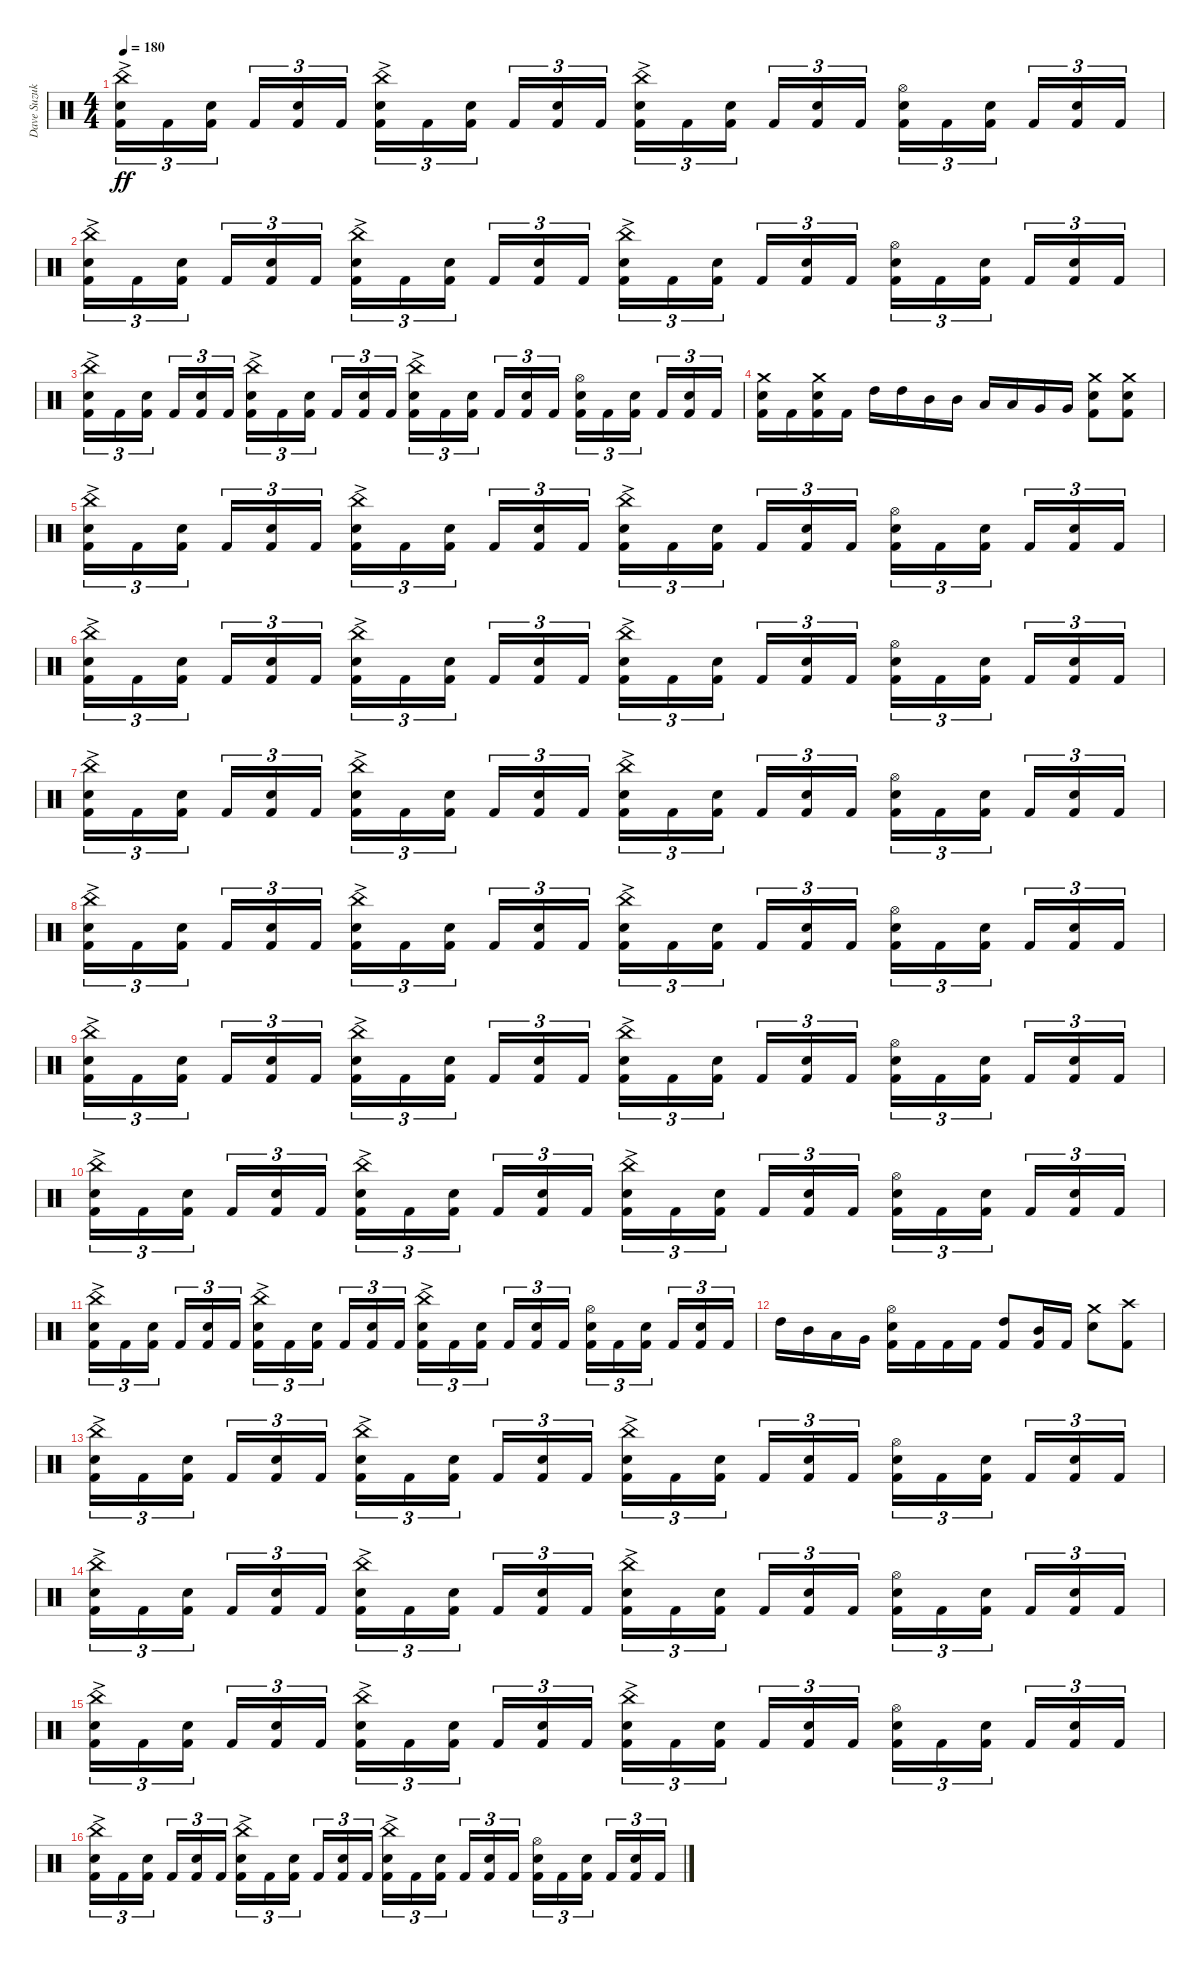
\track ("Dave Suzuki - Drums" "Dave Suzuk") {instrument percussion}
\staff {score}
\articulation defaults
\ts (4 4)
\tempo 180
\clef neutral
\ks c
("China (hit)" "Electric Snare (hit)"{ac} "Kick (hit) 2").16{tu (3 2) dy ff} "Kick (hit) 2".16{tu (3 2)} ("Electric Snare (hit)" "Kick (hit) 2").16{tu (3 2) beam splitsecondary} "Kick (hit) 2".16{tu (3 2)} ("Electric Snare (hit)" "Kick (hit) 2").16{tu (3 2)} "Kick (hit) 2".16{tu (3 2)} ("China (hit)" "Electric Snare (hit)"{ac} "Kick (hit) 2").16{tu (3 2)} "Kick (hit) 2".16{tu (3 2)} ("Electric Snare (hit)" "Kick (hit) 2").16{tu (3 2) beam splitsecondary} "Kick (hit) 2".16{tu (3 2)} ("Electric Snare (hit)" "Kick (hit) 2").16{tu (3 2)} "Kick (hit) 2".16{tu (3 2)} ("China (hit)" "Electric Snare (hit)"{ac} "Kick (hit) 2").16{tu (3 2)} "Kick (hit) 2".16{tu (3 2)} ("Electric Snare (hit)" "Kick (hit) 2").16{tu (3 2) beam splitsecondary} "Kick (hit) 2".16{tu (3 2)} ("Electric Snare (hit)" "Kick (hit) 2").16{tu (3 2)} "Kick (hit) 2".16{tu (3 2)} ("Hi-Hat (open)" "Electric Snare (hit)" "Kick (hit) 2").16{tu (3 2)} "Kick (hit) 2".16{tu (3 2)} ("Electric Snare (hit)" "Kick (hit) 2").16{tu (3 2) beam splitsecondary} "Kick (hit) 2".16{tu (3 2)} ("Electric Snare (hit)" "Kick (hit) 2").16{tu (3 2)} "Kick (hit) 2".16{tu (3 2)} |
("China (hit)" "Electric Snare (hit)"{ac} "Kick (hit) 2").16{tu (3 2)} "Kick (hit) 2".16{tu (3 2)} ("Electric Snare (hit)" "Kick (hit) 2").16{tu (3 2) beam splitsecondary} "Kick (hit) 2".16{tu (3 2)} ("Electric Snare (hit)" "Kick (hit) 2").16{tu (3 2)} "Kick (hit) 2".16{tu (3 2)} ("China (hit)" "Electric Snare (hit)"{ac} "Kick (hit) 2").16{tu (3 2)} "Kick (hit) 2".16{tu (3 2)} ("Electric Snare (hit)" "Kick (hit) 2").16{tu (3 2) beam splitsecondary} "Kick (hit) 2".16{tu (3 2)} ("Electric Snare (hit)" "Kick (hit) 2").16{tu (3 2)} "Kick (hit) 2".16{tu (3 2)} ("China (hit)" "Electric Snare (hit)"{ac} "Kick (hit) 2").16{tu (3 2)} "Kick (hit) 2".16{tu (3 2)} ("Electric Snare (hit)" "Kick (hit) 2").16{tu (3 2) beam splitsecondary} "Kick (hit) 2".16{tu (3 2)} ("Electric Snare (hit)" "Kick (hit) 2").16{tu (3 2)} "Kick (hit) 2".16{tu (3 2)} ("Hi-Hat (open)" "Electric Snare (hit)" "Kick (hit) 2").16{tu (3 2)} "Kick (hit) 2".16{tu (3 2)} ("Electric Snare (hit)" "Kick (hit) 2").16{tu (3 2) beam splitsecondary} "Kick (hit) 2".16{tu (3 2)} ("Electric Snare (hit)" "Kick (hit) 2").16{tu (3 2)} "Kick (hit) 2".16{tu (3 2)} |
("China (hit)" "Electric Snare (hit)"{ac} "Kick (hit) 2").16{tu (3 2)} "Kick (hit) 2".16{tu (3 2)} ("Electric Snare (hit)" "Kick (hit) 2").16{tu (3 2) beam splitsecondary} "Kick (hit) 2".16{tu (3 2)} ("Electric Snare (hit)" "Kick (hit) 2").16{tu (3 2)} "Kick (hit) 2".16{tu (3 2)} ("China (hit)" "Electric Snare (hit)"{ac} "Kick (hit) 2").16{tu (3 2)} "Kick (hit) 2".16{tu (3 2)} ("Electric Snare (hit)" "Kick (hit) 2").16{tu (3 2) beam splitsecondary} "Kick (hit) 2".16{tu (3 2)} ("Electric Snare (hit)" "Kick (hit) 2").16{tu (3 2)} "Kick (hit) 2".16{tu (3 2)} ("China (hit)" "Electric Snare (hit)"{ac} "Kick (hit) 2").16{tu (3 2)} "Kick (hit) 2".16{tu (3 2)} ("Electric Snare (hit)" "Kick (hit) 2").16{tu (3 2) beam splitsecondary} "Kick (hit) 2".16{tu (3 2)} ("Electric Snare (hit)" "Kick (hit) 2").16{tu (3 2)} "Kick (hit) 2".16{tu (3 2)} ("Hi-Hat (open)" "Electric Snare (hit)" "Kick (hit) 2").16{tu (3 2)} "Kick (hit) 2".16{tu (3 2)} ("Electric Snare (hit)" "Kick (hit) 2").16{tu (3 2) beam splitsecondary} "Kick (hit) 2".16{tu (3 2)} ("Electric Snare (hit)" "Kick (hit) 2").16{tu (3 2)} "Kick (hit) 2".16{tu (3 2)} |
("Crash medium (hit)" "Electric Snare (hit)" "Kick (hit) 2").16 "Kick (hit) 2".16 ("Crash medium (hit)" "Electric Snare (hit)" "Kick (hit) 2").16 "Kick (hit) 2".16 "High Tom (hit)".16 "High Tom (hit)".16 "Mid Tom (hit)".16 "Mid Tom (hit)".16 "Low Tom (hit)".16 "Low Tom (hit)".16 "Very Low Tom (hit)".16 "Very Low Tom (hit)".16 ("Crash medium (hit)" "Electric Snare (hit)" "Kick (hit) 2").8 ("Crash medium (hit)" "Electric Snare (hit)" "Kick (hit) 2").8 |
("China (hit)" "Electric Snare (hit)"{ac} "Kick (hit) 2").16{tu (3 2)} "Kick (hit) 2".16{tu (3 2)} ("Electric Snare (hit)" "Kick (hit) 2").16{tu (3 2) beam splitsecondary} "Kick (hit) 2".16{tu (3 2)} ("Electric Snare (hit)" "Kick (hit) 2").16{tu (3 2)} "Kick (hit) 2".16{tu (3 2)} ("China (hit)" "Electric Snare (hit)"{ac} "Kick (hit) 2").16{tu (3 2)} "Kick (hit) 2".16{tu (3 2)} ("Electric Snare (hit)" "Kick (hit) 2").16{tu (3 2) beam splitsecondary} "Kick (hit) 2".16{tu (3 2)} ("Electric Snare (hit)" "Kick (hit) 2").16{tu (3 2)} "Kick (hit) 2".16{tu (3 2)} ("China (hit)" "Electric Snare (hit)"{ac} "Kick (hit) 2").16{tu (3 2)} "Kick (hit) 2".16{tu (3 2)} ("Electric Snare (hit)" "Kick (hit) 2").16{tu (3 2) beam splitsecondary} "Kick (hit) 2".16{tu (3 2)} ("Electric Snare (hit)" "Kick (hit) 2").16{tu (3 2)} "Kick (hit) 2".16{tu (3 2)} ("Hi-Hat (open)" "Electric Snare (hit)" "Kick (hit) 2").16{tu (3 2)} "Kick (hit) 2".16{tu (3 2)} ("Electric Snare (hit)" "Kick (hit) 2").16{tu (3 2) beam splitsecondary} "Kick (hit) 2".16{tu (3 2)} ("Electric Snare (hit)" "Kick (hit) 2").16{tu (3 2)} "Kick (hit) 2".16{tu (3 2)} |
("China (hit)" "Electric Snare (hit)"{ac} "Kick (hit) 2").16{tu (3 2)} "Kick (hit) 2".16{tu (3 2)} ("Electric Snare (hit)" "Kick (hit) 2").16{tu (3 2) beam splitsecondary} "Kick (hit) 2".16{tu (3 2)} ("Electric Snare (hit)" "Kick (hit) 2").16{tu (3 2)} "Kick (hit) 2".16{tu (3 2)} ("China (hit)" "Electric Snare (hit)"{ac} "Kick (hit) 2").16{tu (3 2)} "Kick (hit) 2".16{tu (3 2)} ("Electric Snare (hit)" "Kick (hit) 2").16{tu (3 2) beam splitsecondary} "Kick (hit) 2".16{tu (3 2)} ("Electric Snare (hit)" "Kick (hit) 2").16{tu (3 2)} "Kick (hit) 2".16{tu (3 2)} ("China (hit)" "Electric Snare (hit)"{ac} "Kick (hit) 2").16{tu (3 2)} "Kick (hit) 2".16{tu (3 2)} ("Electric Snare (hit)" "Kick (hit) 2").16{tu (3 2) beam splitsecondary} "Kick (hit) 2".16{tu (3 2)} ("Electric Snare (hit)" "Kick (hit) 2").16{tu (3 2)} "Kick (hit) 2".16{tu (3 2)} ("Hi-Hat (open)" "Electric Snare (hit)" "Kick (hit) 2").16{tu (3 2)} "Kick (hit) 2".16{tu (3 2)} ("Electric Snare (hit)" "Kick (hit) 2").16{tu (3 2) beam splitsecondary} "Kick (hit) 2".16{tu (3 2)} ("Electric Snare (hit)" "Kick (hit) 2").16{tu (3 2)} "Kick (hit) 2".16{tu (3 2)} |
("China (hit)" "Electric Snare (hit)"{ac} "Kick (hit) 2").16{tu (3 2)} "Kick (hit) 2".16{tu (3 2)} ("Electric Snare (hit)" "Kick (hit) 2").16{tu (3 2) beam splitsecondary} "Kick (hit) 2".16{tu (3 2)} ("Electric Snare (hit)" "Kick (hit) 2").16{tu (3 2)} "Kick (hit) 2".16{tu (3 2)} ("China (hit)" "Electric Snare (hit)"{ac} "Kick (hit) 2").16{tu (3 2)} "Kick (hit) 2".16{tu (3 2)} ("Electric Snare (hit)" "Kick (hit) 2").16{tu (3 2) beam splitsecondary} "Kick (hit) 2".16{tu (3 2)} ("Electric Snare (hit)" "Kick (hit) 2").16{tu (3 2)} "Kick (hit) 2".16{tu (3 2)} ("China (hit)" "Electric Snare (hit)"{ac} "Kick (hit) 2").16{tu (3 2)} "Kick (hit) 2".16{tu (3 2)} ("Electric Snare (hit)" "Kick (hit) 2").16{tu (3 2) beam splitsecondary} "Kick (hit) 2".16{tu (3 2)} ("Electric Snare (hit)" "Kick (hit) 2").16{tu (3 2)} "Kick (hit) 2".16{tu (3 2)} ("Hi-Hat (open)" "Electric Snare (hit)" "Kick (hit) 2").16{tu (3 2)} "Kick (hit) 2".16{tu (3 2)} ("Electric Snare (hit)" "Kick (hit) 2").16{tu (3 2) beam splitsecondary} "Kick (hit) 2".16{tu (3 2)} ("Electric Snare (hit)" "Kick (hit) 2").16{tu (3 2)} "Kick (hit) 2".16{tu (3 2)} |
("China (hit)" "Electric Snare (hit)"{ac} "Kick (hit) 2").16{tu (3 2)} "Kick (hit) 2".16{tu (3 2)} ("Electric Snare (hit)" "Kick (hit) 2").16{tu (3 2) beam splitsecondary} "Kick (hit) 2".16{tu (3 2)} ("Electric Snare (hit)" "Kick (hit) 2").16{tu (3 2)} "Kick (hit) 2".16{tu (3 2)} ("China (hit)" "Electric Snare (hit)"{ac} "Kick (hit) 2").16{tu (3 2)} "Kick (hit) 2".16{tu (3 2)} ("Electric Snare (hit)" "Kick (hit) 2").16{tu (3 2) beam splitsecondary} "Kick (hit) 2".16{tu (3 2)} ("Electric Snare (hit)" "Kick (hit) 2").16{tu (3 2)} "Kick (hit) 2".16{tu (3 2)} ("China (hit)" "Electric Snare (hit)"{ac} "Kick (hit) 2").16{tu (3 2)} "Kick (hit) 2".16{tu (3 2)} ("Electric Snare (hit)" "Kick (hit) 2").16{tu (3 2) beam splitsecondary} "Kick (hit) 2".16{tu (3 2)} ("Electric Snare (hit)" "Kick (hit) 2").16{tu (3 2)} "Kick (hit) 2".16{tu (3 2)} ("Hi-Hat (open)" "Electric Snare (hit)" "Kick (hit) 2").16{tu (3 2)} "Kick (hit) 2".16{tu (3 2)} ("Electric Snare (hit)" "Kick (hit) 2").16{tu (3 2) beam splitsecondary} "Kick (hit) 2".16{tu (3 2)} ("Electric Snare (hit)" "Kick (hit) 2").16{tu (3 2)} "Kick (hit) 2".16{tu (3 2)} |
("China (hit)" "Electric Snare (hit)"{ac} "Kick (hit) 2").16{tu (3 2)} "Kick (hit) 2".16{tu (3 2)} ("Electric Snare (hit)" "Kick (hit) 2").16{tu (3 2) beam splitsecondary} "Kick (hit) 2".16{tu (3 2)} ("Electric Snare (hit)" "Kick (hit) 2").16{tu (3 2)} "Kick (hit) 2".16{tu (3 2)} ("China (hit)" "Electric Snare (hit)"{ac} "Kick (hit) 2").16{tu (3 2)} "Kick (hit) 2".16{tu (3 2)} ("Electric Snare (hit)" "Kick (hit) 2").16{tu (3 2) beam splitsecondary} "Kick (hit) 2".16{tu (3 2)} ("Electric Snare (hit)" "Kick (hit) 2").16{tu (3 2)} "Kick (hit) 2".16{tu (3 2)} ("China (hit)" "Electric Snare (hit)"{ac} "Kick (hit) 2").16{tu (3 2)} "Kick (hit) 2".16{tu (3 2)} ("Electric Snare (hit)" "Kick (hit) 2").16{tu (3 2) beam splitsecondary} "Kick (hit) 2".16{tu (3 2)} ("Electric Snare (hit)" "Kick (hit) 2").16{tu (3 2)} "Kick (hit) 2".16{tu (3 2)} ("Hi-Hat (open)" "Electric Snare (hit)" "Kick (hit) 2").16{tu (3 2)} "Kick (hit) 2".16{tu (3 2)} ("Electric Snare (hit)" "Kick (hit) 2").16{tu (3 2) beam splitsecondary} "Kick (hit) 2".16{tu (3 2)} ("Electric Snare (hit)" "Kick (hit) 2").16{tu (3 2)} "Kick (hit) 2".16{tu (3 2)} |
("China (hit)" "Electric Snare (hit)"{ac} "Kick (hit) 2").16{tu (3 2)} "Kick (hit) 2".16{tu (3 2)} ("Electric Snare (hit)" "Kick (hit) 2").16{tu (3 2) beam splitsecondary} "Kick (hit) 2".16{tu (3 2)} ("Electric Snare (hit)" "Kick (hit) 2").16{tu (3 2)} "Kick (hit) 2".16{tu (3 2)} ("China (hit)" "Electric Snare (hit)"{ac} "Kick (hit) 2").16{tu (3 2)} "Kick (hit) 2".16{tu (3 2)} ("Electric Snare (hit)" "Kick (hit) 2").16{tu (3 2) beam splitsecondary} "Kick (hit) 2".16{tu (3 2)} ("Electric Snare (hit)" "Kick (hit) 2").16{tu (3 2)} "Kick (hit) 2".16{tu (3 2)} ("China (hit)" "Electric Snare (hit)"{ac} "Kick (hit) 2").16{tu (3 2)} "Kick (hit) 2".16{tu (3 2)} ("Electric Snare (hit)" "Kick (hit) 2").16{tu (3 2) beam splitsecondary} "Kick (hit) 2".16{tu (3 2)} ("Electric Snare (hit)" "Kick (hit) 2").16{tu (3 2)} "Kick (hit) 2".16{tu (3 2)} ("Hi-Hat (open)" "Electric Snare (hit)" "Kick (hit) 2").16{tu (3 2)} "Kick (hit) 2".16{tu (3 2)} ("Electric Snare (hit)" "Kick (hit) 2").16{tu (3 2) beam splitsecondary} "Kick (hit) 2".16{tu (3 2)} ("Electric Snare (hit)" "Kick (hit) 2").16{tu (3 2)} "Kick (hit) 2".16{tu (3 2)} |
("China (hit)" "Electric Snare (hit)"{ac} "Kick (hit) 2").16{tu (3 2)} "Kick (hit) 2".16{tu (3 2)} ("Electric Snare (hit)" "Kick (hit) 2").16{tu (3 2) beam splitsecondary} "Kick (hit) 2".16{tu (3 2)} ("Electric Snare (hit)" "Kick (hit) 2").16{tu (3 2)} "Kick (hit) 2".16{tu (3 2)} ("China (hit)" "Electric Snare (hit)"{ac} "Kick (hit) 2").16{tu (3 2)} "Kick (hit) 2".16{tu (3 2)} ("Electric Snare (hit)" "Kick (hit) 2").16{tu (3 2) beam splitsecondary} "Kick (hit) 2".16{tu (3 2)} ("Electric Snare (hit)" "Kick (hit) 2").16{tu (3 2)} "Kick (hit) 2".16{tu (3 2)} ("China (hit)" "Electric Snare (hit)"{ac} "Kick (hit) 2").16{tu (3 2)} "Kick (hit) 2".16{tu (3 2)} ("Electric Snare (hit)" "Kick (hit) 2").16{tu (3 2) beam splitsecondary} "Kick (hit) 2".16{tu (3 2)} ("Electric Snare (hit)" "Kick (hit) 2").16{tu (3 2)} "Kick (hit) 2".16{tu (3 2)} ("Hi-Hat (open)" "Electric Snare (hit)" "Kick (hit) 2").16{tu (3 2)} "Kick (hit) 2".16{tu (3 2)} ("Electric Snare (hit)" "Kick (hit) 2").16{tu (3 2) beam splitsecondary} "Kick (hit) 2".16{tu (3 2)} ("Electric Snare (hit)" "Kick (hit) 2").16{tu (3 2)} "Kick (hit) 2".16{tu (3 2)} |
"High Tom (hit)".16 "Mid Tom (hit)".16 "Low Tom (hit)".16 "Very Low Tom (hit)".16 ("Hi-Hat (open)" "Electric Snare (hit)" "Kick (hit) 2").16 "Kick (hit) 2".16 "Kick (hit) 2".16 "Kick (hit) 2".16 ("High Tom (hit)" "Kick (hit) 2").8 ("Mid Tom (hit)" "Kick (hit) 2").16 "Kick (hit) 2".16 ("Crash medium (hit)" "Electric Snare (hit)").8 ("Crash high (hit)" "Kick (hit) 2").8 |
("China (hit)" "Electric Snare (hit)"{ac} "Kick (hit) 2").16{tu (3 2)} "Kick (hit) 2".16{tu (3 2)} ("Electric Snare (hit)" "Kick (hit) 2").16{tu (3 2) beam splitsecondary} "Kick (hit) 2".16{tu (3 2)} ("Electric Snare (hit)" "Kick (hit) 2").16{tu (3 2)} "Kick (hit) 2".16{tu (3 2)} ("China (hit)" "Electric Snare (hit)"{ac} "Kick (hit) 2").16{tu (3 2)} "Kick (hit) 2".16{tu (3 2)} ("Electric Snare (hit)" "Kick (hit) 2").16{tu (3 2) beam splitsecondary} "Kick (hit) 2".16{tu (3 2)} ("Electric Snare (hit)" "Kick (hit) 2").16{tu (3 2)} "Kick (hit) 2".16{tu (3 2)} ("China (hit)" "Electric Snare (hit)"{ac} "Kick (hit) 2").16{tu (3 2)} "Kick (hit) 2".16{tu (3 2)} ("Electric Snare (hit)" "Kick (hit) 2").16{tu (3 2) beam splitsecondary} "Kick (hit) 2".16{tu (3 2)} ("Electric Snare (hit)" "Kick (hit) 2").16{tu (3 2)} "Kick (hit) 2".16{tu (3 2)} ("Hi-Hat (open)" "Electric Snare (hit)" "Kick (hit) 2").16{tu (3 2)} "Kick (hit) 2".16{tu (3 2)} ("Electric Snare (hit)" "Kick (hit) 2").16{tu (3 2) beam splitsecondary} "Kick (hit) 2".16{tu (3 2)} ("Electric Snare (hit)" "Kick (hit) 2").16{tu (3 2)} "Kick (hit) 2".16{tu (3 2)} |
("China (hit)" "Electric Snare (hit)"{ac} "Kick (hit) 2").16{tu (3 2)} "Kick (hit) 2".16{tu (3 2)} ("Electric Snare (hit)" "Kick (hit) 2").16{tu (3 2) beam splitsecondary} "Kick (hit) 2".16{tu (3 2)} ("Electric Snare (hit)" "Kick (hit) 2").16{tu (3 2)} "Kick (hit) 2".16{tu (3 2)} ("China (hit)" "Electric Snare (hit)"{ac} "Kick (hit) 2").16{tu (3 2)} "Kick (hit) 2".16{tu (3 2)} ("Electric Snare (hit)" "Kick (hit) 2").16{tu (3 2) beam splitsecondary} "Kick (hit) 2".16{tu (3 2)} ("Electric Snare (hit)" "Kick (hit) 2").16{tu (3 2)} "Kick (hit) 2".16{tu (3 2)} ("China (hit)" "Electric Snare (hit)"{ac} "Kick (hit) 2").16{tu (3 2)} "Kick (hit) 2".16{tu (3 2)} ("Electric Snare (hit)" "Kick (hit) 2").16{tu (3 2) beam splitsecondary} "Kick (hit) 2".16{tu (3 2)} ("Electric Snare (hit)" "Kick (hit) 2").16{tu (3 2)} "Kick (hit) 2".16{tu (3 2)} ("Hi-Hat (open)" "Electric Snare (hit)" "Kick (hit) 2").16{tu (3 2)} "Kick (hit) 2".16{tu (3 2)} ("Electric Snare (hit)" "Kick (hit) 2").16{tu (3 2) beam splitsecondary} "Kick (hit) 2".16{tu (3 2)} ("Electric Snare (hit)" "Kick (hit) 2").16{tu (3 2)} "Kick (hit) 2".16{tu (3 2)} |
("China (hit)" "Electric Snare (hit)"{ac} "Kick (hit) 2").16{tu (3 2)} "Kick (hit) 2".16{tu (3 2)} ("Electric Snare (hit)" "Kick (hit) 2").16{tu (3 2) beam splitsecondary} "Kick (hit) 2".16{tu (3 2)} ("Electric Snare (hit)" "Kick (hit) 2").16{tu (3 2)} "Kick (hit) 2".16{tu (3 2)} ("China (hit)" "Electric Snare (hit)"{ac} "Kick (hit) 2").16{tu (3 2)} "Kick (hit) 2".16{tu (3 2)} ("Electric Snare (hit)" "Kick (hit) 2").16{tu (3 2) beam splitsecondary} "Kick (hit) 2".16{tu (3 2)} ("Electric Snare (hit)" "Kick (hit) 2").16{tu (3 2)} "Kick (hit) 2".16{tu (3 2)} ("China (hit)" "Electric Snare (hit)"{ac} "Kick (hit) 2").16{tu (3 2)} "Kick (hit) 2".16{tu (3 2)} ("Electric Snare (hit)" "Kick (hit) 2").16{tu (3 2) beam splitsecondary} "Kick (hit) 2".16{tu (3 2)} ("Electric Snare (hit)" "Kick (hit) 2").16{tu (3 2)} "Kick (hit) 2".16{tu (3 2)} ("Hi-Hat (open)" "Electric Snare (hit)" "Kick (hit) 2").16{tu (3 2)} "Kick (hit) 2".16{tu (3 2)} ("Electric Snare (hit)" "Kick (hit) 2").16{tu (3 2) beam splitsecondary} "Kick (hit) 2".16{tu (3 2)} ("Electric Snare (hit)" "Kick (hit) 2").16{tu (3 2)} "Kick (hit) 2".16{tu (3 2)} |
("China (hit)" "Electric Snare (hit)"{ac} "Kick (hit) 2").16{tu (3 2)} "Kick (hit) 2".16{tu (3 2)} ("Electric Snare (hit)" "Kick (hit) 2").16{tu (3 2) beam splitsecondary} "Kick (hit) 2".16{tu (3 2)} ("Electric Snare (hit)" "Kick (hit) 2").16{tu (3 2)} "Kick (hit) 2".16{tu (3 2)} ("China (hit)" "Electric Snare (hit)"{ac} "Kick (hit) 2").16{tu (3 2)} "Kick (hit) 2".16{tu (3 2)} ("Electric Snare (hit)" "Kick (hit) 2").16{tu (3 2) beam splitsecondary} "Kick (hit) 2".16{tu (3 2)} ("Electric Snare (hit)" "Kick (hit) 2").16{tu (3 2)} "Kick (hit) 2".16{tu (3 2)} ("China (hit)" "Electric Snare (hit)"{ac} "Kick (hit) 2").16{tu (3 2)} "Kick (hit) 2".16{tu (3 2)} ("Electric Snare (hit)" "Kick (hit) 2").16{tu (3 2) beam splitsecondary} "Kick (hit) 2".16{tu (3 2)} ("Electric Snare (hit)" "Kick (hit) 2").16{tu (3 2)} "Kick (hit) 2".16{tu (3 2)} ("Hi-Hat (open)" "Electric Snare (hit)" "Kick (hit) 2").16{tu (3 2)} "Kick (hit) 2".16{tu (3 2)} ("Electric Snare (hit)" "Kick (hit) 2").16{tu (3 2) beam splitsecondary} "Kick (hit) 2".16{tu (3 2)} ("Electric Snare (hit)" "Kick (hit) 2").16{tu (3 2)} "Kick (hit) 2".16{tu (3 2)}
